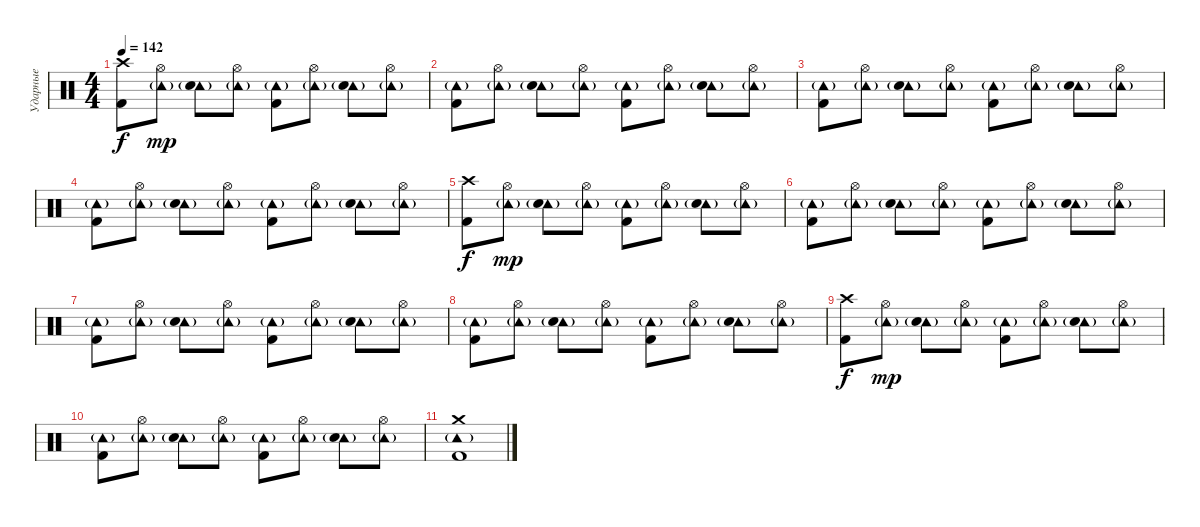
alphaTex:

\track ("Ударные" "Ударные") {instrument percussion}
\staff {score}
\articulation defaults
\ts (4 4)
\tempo 142
\clef neutral
\ks c
("Crash high (hit)" "Kick (hit) 2").8{dy f} ("Tambourine (hit)"{g} "Hi-Hat (open)").8{dy mp} ("Tambourine (hit)"{g} "Electric Snare (hit)").8 ("Tambourine (hit)"{g} "Hi-Hat (open)").8 ("Tambourine (hit)"{g} "Kick (hit) 2").8 ("Tambourine (hit)"{g} "Hi-Hat (open)").8 ("Tambourine (hit)"{g} "Electric Snare (hit)").8 ("Tambourine (hit)"{g} "Hi-Hat (open)").8 |
("Tambourine (hit)"{g} "Kick (hit) 2").8 ("Tambourine (hit)"{g} "Hi-Hat (open)").8 ("Tambourine (hit)"{g} "Electric Snare (hit)").8 ("Tambourine (hit)"{g} "Hi-Hat (open)").8 ("Tambourine (hit)"{g} "Kick (hit) 2").8 ("Tambourine (hit)"{g} "Hi-Hat (open)").8 ("Tambourine (hit)"{g} "Electric Snare (hit)").8 ("Tambourine (hit)"{g} "Hi-Hat (open)").8 |
("Tambourine (hit)"{g} "Kick (hit) 2").8 ("Tambourine (hit)"{g} "Hi-Hat (open)").8 ("Tambourine (hit)"{g} "Electric Snare (hit)").8 ("Tambourine (hit)"{g} "Hi-Hat (open)").8 ("Tambourine (hit)"{g} "Kick (hit) 2").8 ("Tambourine (hit)"{g} "Hi-Hat (open)").8 ("Tambourine (hit)"{g} "Electric Snare (hit)").8 ("Tambourine (hit)"{g} "Hi-Hat (open)").8 |
("Tambourine (hit)"{g} "Kick (hit) 2").8 ("Tambourine (hit)"{g} "Hi-Hat (open)").8 ("Tambourine (hit)"{g} "Electric Snare (hit)").8 ("Tambourine (hit)"{g} "Hi-Hat (open)").8 ("Tambourine (hit)"{g} "Kick (hit) 2").8 ("Tambourine (hit)"{g} "Hi-Hat (open)").8 ("Tambourine (hit)"{g} "Electric Snare (hit)").8 ("Tambourine (hit)"{g} "Hi-Hat (open)").8 |
("Crash high (hit)" "Kick (hit) 2").8{dy f} ("Tambourine (hit)"{g} "Hi-Hat (open)").8{dy mp} ("Tambourine (hit)"{g} "Electric Snare (hit)").8 ("Tambourine (hit)"{g} "Hi-Hat (open)").8 ("Tambourine (hit)"{g} "Kick (hit) 2").8 ("Tambourine (hit)"{g} "Hi-Hat (open)").8 ("Tambourine (hit)"{g} "Electric Snare (hit)").8 ("Tambourine (hit)"{g} "Hi-Hat (open)").8 |
("Tambourine (hit)"{g} "Kick (hit) 2").8 ("Tambourine (hit)"{g} "Hi-Hat (open)").8 ("Tambourine (hit)"{g} "Electric Snare (hit)").8 ("Tambourine (hit)"{g} "Hi-Hat (open)").8 ("Tambourine (hit)"{g} "Kick (hit) 2").8 ("Tambourine (hit)"{g} "Hi-Hat (open)").8 ("Tambourine (hit)"{g} "Electric Snare (hit)").8 ("Tambourine (hit)"{g} "Hi-Hat (open)").8 |
("Tambourine (hit)"{g} "Kick (hit) 2").8 ("Tambourine (hit)"{g} "Hi-Hat (open)").8 ("Tambourine (hit)"{g} "Electric Snare (hit)").8 ("Tambourine (hit)"{g} "Hi-Hat (open)").8 ("Tambourine (hit)"{g} "Kick (hit) 2").8 ("Tambourine (hit)"{g} "Hi-Hat (open)").8 ("Tambourine (hit)"{g} "Electric Snare (hit)").8 ("Tambourine (hit)"{g} "Hi-Hat (open)").8 |
("Tambourine (hit)"{g} "Kick (hit) 2").8 ("Tambourine (hit)"{g} "Hi-Hat (open)").8 ("Tambourine (hit)"{g} "Electric Snare (hit)").8 ("Tambourine (hit)"{g} "Hi-Hat (open)").8 ("Tambourine (hit)"{g} "Kick (hit) 2").8 ("Tambourine (hit)"{g} "Hi-Hat (open)").8 ("Tambourine (hit)"{g} "Electric Snare (hit)").8 ("Tambourine (hit)"{g} "Hi-Hat (open)").8 |
("Crash high (hit)" "Kick (hit) 2").8{dy f} ("Tambourine (hit)"{g} "Hi-Hat (open)").8{dy mp} ("Tambourine (hit)"{g} "Electric Snare (hit)").8 ("Tambourine (hit)"{g} "Hi-Hat (open)").8 ("Tambourine (hit)"{g} "Kick (hit) 2").8 ("Tambourine (hit)"{g} "Hi-Hat (open)").8 ("Tambourine (hit)"{g} "Electric Snare (hit)").8 ("Tambourine (hit)"{g} "Hi-Hat (open)").8 |
("Tambourine (hit)"{g} "Kick (hit) 2").8 ("Tambourine (hit)"{g} "Hi-Hat (open)").8 ("Tambourine (hit)"{g} "Electric Snare (hit)").8 ("Tambourine (hit)"{g} "Hi-Hat (open)").8 ("Tambourine (hit)"{g} "Kick (hit) 2").8 ("Tambourine (hit)"{g} "Hi-Hat (open)").8 ("Tambourine (hit)"{g} "Electric Snare (hit)").8 ("Tambourine (hit)"{g} "Hi-Hat (open)").8 |
("Tambourine (hit)"{g} "Crash medium (hit)" "Kick (hit) 2").1
